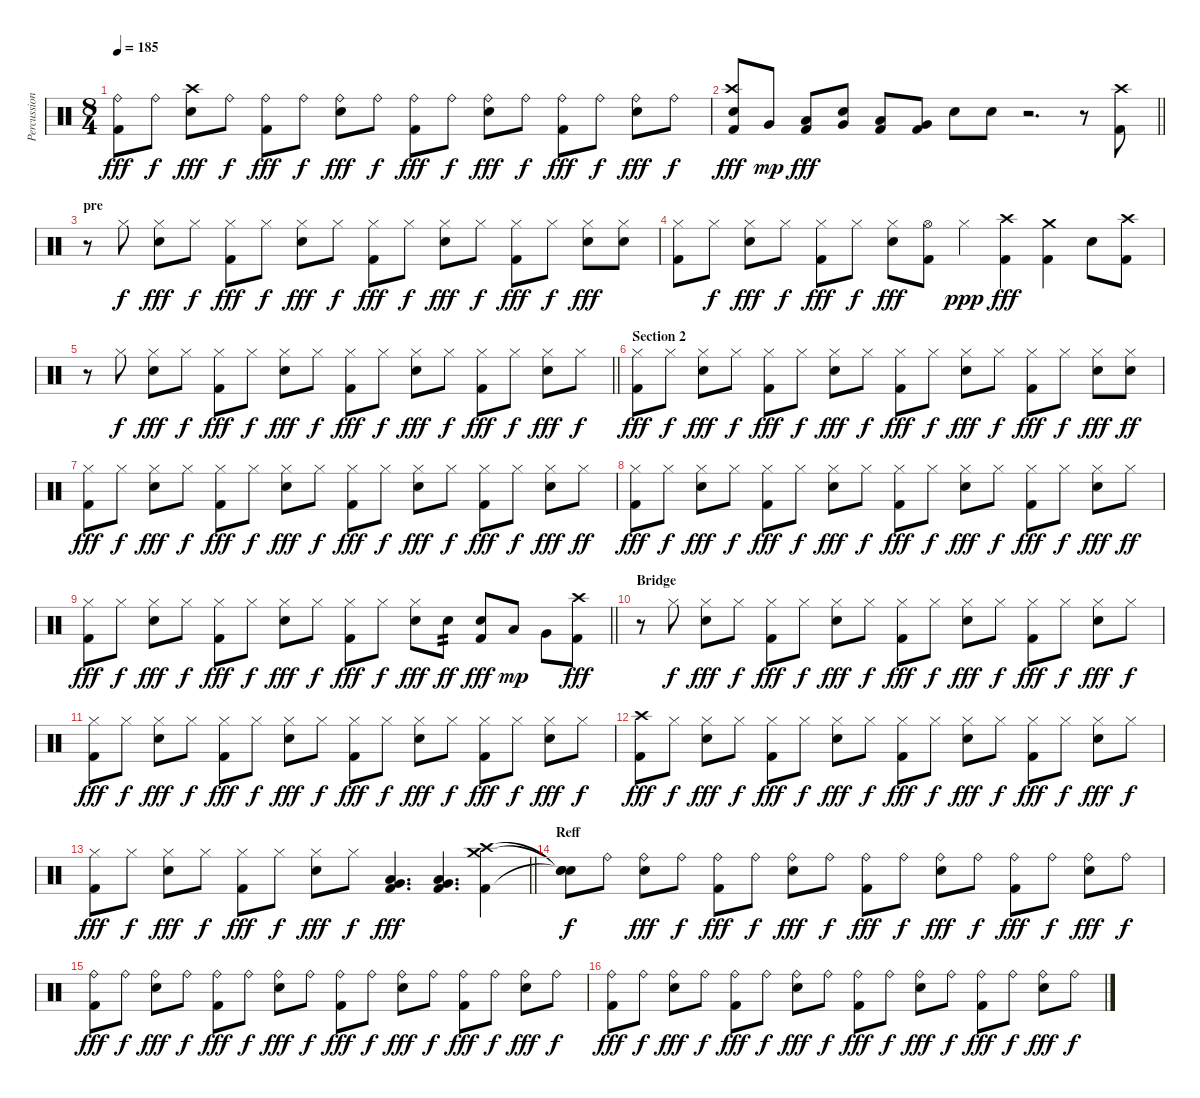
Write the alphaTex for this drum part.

\track ("Percussion" "Percussion") {instrument percussion}
\staff {score}
\articulation defaults
\ts (8 4)
\tempo 185
\clef neutral
\ks c
("Ride (bell)" "Kick (hit) 2").8{dy fff} "Ride (bell)".8{dy f} ("Crash high (hit)" "Electric Snare (hit)").8{dy fff} "Ride (bell)".8{dy f} ("Ride (bell)" "Kick (hit) 2").8{dy fff} "Ride (bell)".8{dy f} ("Ride (bell)" "Electric Snare (hit)").8{dy fff} "Ride (bell)".8{dy f} ("Ride (bell)" "Kick (hit) 2").8{dy fff} "Ride (bell)".8{dy f} ("Ride (bell)" "Electric Snare (hit)").8{dy fff} "Ride (bell)".8{dy f} ("Ride (bell)" "Kick (hit) 2").8{dy fff} "Ride (bell)".8{dy f} ("Ride (bell)" "Electric Snare (hit)").8{dy fff} "Ride (bell)".8{dy f} |
\barLineRight lightlight
("Crash high (hit)" "Electric Snare (hit)" "Kick (hit) 2").8{dy fff} "Very Low Tom (hit)".8{dy mp} ("Low Floor Tom (hit)" "Kick (hit) 2").8{dy fff} ("Very Low Tom (hit)" "Electric Snare (hit)").8 ("Low Floor Tom (hit)" "Kick (hit) 2").8 ("Very Low Tom (hit)" "Kick (hit) 2").8 "Electric Snare (hit)".8 "Electric Snare (hit)".8 r.2{d} r.8 ("Crash high (hit)" "Kick (hit) 2").8 |
\section ("" "pre")
r.8 "Hi-Hat (closed)".8{dy f} ("Hi-Hat (closed)" "Electric Snare (hit)").8{dy fff} "Hi-Hat (closed)".8{dy f} ("Hi-Hat (closed)" "Kick (hit) 2").8{dy fff} "Hi-Hat (closed)".8{dy f} ("Hi-Hat (closed)" "Electric Snare (hit)").8{dy fff} "Hi-Hat (closed)".8{dy f} ("Hi-Hat (closed)" "Kick (hit) 2").8{dy fff} "Hi-Hat (closed)".8{dy f} ("Hi-Hat (closed)" "Electric Snare (hit)").8{dy fff} "Hi-Hat (closed)".8{dy f} ("Hi-Hat (closed)" "Kick (hit) 2").8{dy fff} "Hi-Hat (closed)".8{dy f} ("Hi-Hat (closed)" "Electric Snare (hit)").8{dy fff} ("Hi-Hat (closed)" "Electric Snare (hit)").8 |
("Hi-Hat (closed)" "Kick (hit) 2").8 "Hi-Hat (closed)".8{dy f} ("Hi-Hat (closed)" "Electric Snare (hit)").8{dy fff} "Hi-Hat (closed)".8{dy f} ("Hi-Hat (closed)" "Kick (hit) 2").8{dy fff} "Hi-Hat (closed)".8{dy f} ("Hi-Hat (closed)" "Electric Snare (hit)").8{dy fff} ("Hi-Hat (open)" "Kick (hit) 2").8 "Hi-Hat (closed)".4{dy ppp} ("Crash high (hit)" "Kick (hit) 2").4{dy fff} ("Crash medium (hit)" "Kick (hit) 2").4 "Electric Snare (hit)".8 ("Crash high (hit)" "Kick (hit) 2").8 |
\barLineRight lightlight
r.8 "Hi-Hat (closed)".8{dy f} ("Hi-Hat (closed)" "Electric Snare (hit)").8{dy fff} "Hi-Hat (closed)".8{dy f} ("Hi-Hat (closed)" "Kick (hit) 2").8{dy fff} "Hi-Hat (closed)".8{dy f} ("Hi-Hat (closed)" "Electric Snare (hit)").8{dy fff} "Hi-Hat (closed)".8{dy f} ("Hi-Hat (closed)" "Kick (hit) 2").8{dy fff} "Hi-Hat (closed)".8{dy f} ("Hi-Hat (closed)" "Electric Snare (hit)").8{dy fff} "Hi-Hat (closed)".8{dy f} ("Hi-Hat (closed)" "Kick (hit) 2").8{dy fff} "Hi-Hat (closed)".8{dy f} ("Hi-Hat (closed)" "Electric Snare (hit)").8{dy fff} "Hi-Hat (closed)".8{dy f} |
\section ("" "Section 2")
("Hi-Hat (closed)" "Kick (hit) 2").8{dy fff} "Hi-Hat (closed)".8{dy f} ("Hi-Hat (closed)" "Electric Snare (hit)").8{dy fff} "Hi-Hat (closed)".8{dy f} ("Hi-Hat (closed)" "Kick (hit) 2").8{dy fff} "Hi-Hat (closed)".8{dy f} ("Hi-Hat (closed)" "Electric Snare (hit)").8{dy fff} "Hi-Hat (closed)".8{dy f} ("Hi-Hat (closed)" "Kick (hit) 2").8{dy fff} "Hi-Hat (closed)".8{dy f} ("Hi-Hat (closed)" "Electric Snare (hit)").8{dy fff} "Hi-Hat (closed)".8{dy f} ("Hi-Hat (closed)" "Kick (hit) 2").8{dy fff} "Hi-Hat (closed)".8{dy f} ("Hi-Hat (closed)" "Electric Snare (hit)").8{dy fff} ("Hi-Hat (closed)" "Electric Snare (hit)").8{dy ff} |
("Hi-Hat (closed)" "Kick (hit) 2").8{dy fff} "Hi-Hat (closed)".8{dy f} ("Hi-Hat (closed)" "Electric Snare (hit)").8{dy fff} "Hi-Hat (closed)".8{dy f} ("Hi-Hat (closed)" "Kick (hit) 2").8{dy fff} "Hi-Hat (closed)".8{dy f} ("Hi-Hat (closed)" "Electric Snare (hit)").8{dy fff} "Hi-Hat (closed)".8{dy f} ("Hi-Hat (closed)" "Kick (hit) 2").8{dy fff} "Hi-Hat (closed)".8{dy f} ("Hi-Hat (closed)" "Electric Snare (hit)").8{dy fff} "Hi-Hat (closed)".8{dy f} ("Hi-Hat (closed)" "Kick (hit) 2").8{dy fff} "Hi-Hat (closed)".8{dy f} ("Hi-Hat (closed)" "Electric Snare (hit)").8{dy fff} "Hi-Hat (closed)".8{dy ff} |
("Hi-Hat (closed)" "Kick (hit) 2").8{dy fff} "Hi-Hat (closed)".8{dy f} ("Hi-Hat (closed)" "Electric Snare (hit)").8{dy fff} "Hi-Hat (closed)".8{dy f} ("Hi-Hat (closed)" "Kick (hit) 2").8{dy fff} "Hi-Hat (closed)".8{dy f} ("Hi-Hat (closed)" "Electric Snare (hit)").8{dy fff} "Hi-Hat (closed)".8{dy f} ("Hi-Hat (closed)" "Kick (hit) 2").8{dy fff} "Hi-Hat (closed)".8{dy f} ("Hi-Hat (closed)" "Electric Snare (hit)").8{dy fff} "Hi-Hat (closed)".8{dy f} ("Hi-Hat (closed)" "Kick (hit) 2").8{dy fff} "Hi-Hat (closed)".8{dy f} ("Hi-Hat (closed)" "Electric Snare (hit)").8{dy fff} "Hi-Hat (closed)".8{dy ff} |
\barLineRight lightlight
("Hi-Hat (closed)" "Kick (hit) 2").8{dy fff} "Hi-Hat (closed)".8{dy f} ("Hi-Hat (closed)" "Electric Snare (hit)").8{dy fff} "Hi-Hat (closed)".8{dy f} ("Hi-Hat (closed)" "Kick (hit) 2").8{dy fff} "Hi-Hat (closed)".8{dy f} ("Hi-Hat (closed)" "Electric Snare (hit)").8{dy fff} "Hi-Hat (closed)".8{dy f} ("Hi-Hat (closed)" "Kick (hit) 2").8{dy fff} "Hi-Hat (closed)".8{dy f} ("Hi-Hat (closed)" "Electric Snare (hit)").8{dy fff} "Electric Snare (hit)".8{tp 2 dy ff} ("Electric Snare (hit)" "Kick (hit) 2").8{dy fff} "Low Tom (hit)".8{dy mp} "Very Low Tom (hit)".8 ("Crash high (hit)" "Kick (hit) 2").8{dy fff} |
\section ("" "Bridge")
r.8 "Hi-Hat (closed)".8{dy f} ("Hi-Hat (closed)" "Electric Snare (hit)").8{dy fff} "Hi-Hat (closed)".8{dy f} ("Hi-Hat (closed)" "Kick (hit) 2").8{dy fff} "Hi-Hat (closed)".8{dy f} ("Hi-Hat (closed)" "Electric Snare (hit)").8{dy fff} "Hi-Hat (closed)".8{dy f} ("Hi-Hat (closed)" "Kick (hit) 2").8{dy fff} "Hi-Hat (closed)".8{dy f} ("Hi-Hat (closed)" "Electric Snare (hit)").8{dy fff} "Hi-Hat (closed)".8{dy f} ("Hi-Hat (closed)" "Kick (hit) 2").8{dy fff} "Hi-Hat (closed)".8{dy f} ("Hi-Hat (closed)" "Electric Snare (hit)").8{dy fff} "Hi-Hat (closed)".8{dy f} |
("Hi-Hat (closed)" "Kick (hit) 2").8{dy fff} "Hi-Hat (closed)".8{dy f} ("Hi-Hat (closed)" "Electric Snare (hit)").8{dy fff} "Hi-Hat (closed)".8{dy f} ("Hi-Hat (closed)" "Kick (hit) 2").8{dy fff} "Hi-Hat (closed)".8{dy f} ("Hi-Hat (closed)" "Electric Snare (hit)").8{dy fff} "Hi-Hat (closed)".8{dy f} ("Hi-Hat (closed)" "Kick (hit) 2").8{dy fff} "Hi-Hat (closed)".8{dy f} ("Hi-Hat (closed)" "Electric Snare (hit)").8{dy fff} "Hi-Hat (closed)".8{dy f} ("Hi-Hat (closed)" "Kick (hit) 2").8{dy fff} "Hi-Hat (closed)".8{dy f} ("Hi-Hat (closed)" "Electric Snare (hit)").8{dy fff} "Hi-Hat (closed)".8{dy f} |
("Crash high (hit)" "Kick (hit) 2").8{dy fff} "Hi-Hat (closed)".8{dy f} ("Hi-Hat (closed)" "Electric Snare (hit)").8{dy fff} "Hi-Hat (closed)".8{dy f} ("Hi-Hat (closed)" "Kick (hit) 2").8{dy fff} "Hi-Hat (closed)".8{dy f} ("Hi-Hat (closed)" "Electric Snare (hit)").8{dy fff} "Hi-Hat (closed)".8{dy f} ("Hi-Hat (closed)" "Kick (hit) 2").8{dy fff} "Hi-Hat (closed)".8{dy f} ("Hi-Hat (closed)" "Electric Snare (hit)").8{dy fff} "Hi-Hat (closed)".8{dy f} ("Hi-Hat (closed)" "Kick (hit) 2").8{dy fff} "Hi-Hat (closed)".8{dy f} ("Hi-Hat (closed)" "Electric Snare (hit)").8{dy fff} "Hi-Hat (closed)".8{dy f} |
\barLineRight lightlight
("Hi-Hat (closed)" "Kick (hit) 2").8{dy fff} "Hi-Hat (closed)".8{dy f} ("Hi-Hat (closed)" "Electric Snare (hit)").8{dy fff} "Hi-Hat (closed)".8{dy f} ("Hi-Hat (closed)" "Kick (hit) 2").8{dy fff} "Hi-Hat (closed)".8{dy f} ("Hi-Hat (closed)" "Electric Snare (hit)").8{dy fff} "Hi-Hat (closed)".8{dy f} ("Very Low Tom (hit)" "Low Floor Tom (hit)" "Kick (hit) 2").4{d dy fff} ("Very Low Tom (hit)" "Low Floor Tom (hit)" "Kick (hit) 2").4{d} ("Crash high (hit)" "Crash medium (hit)" "Kick (hit) 2").4 |
\section ("" "Reff")
("Snare (hit)"{t} "Snare (hit)"{t} "Snare (hit)"{t}).8{dy f} "Ride (bell)".8 ("Ride (bell)" "Electric Snare (hit)").8{dy fff} "Ride (bell)".8{dy f} ("Ride (bell)" "Kick (hit) 2").8{dy fff} "Ride (bell)".8{dy f} ("Ride (bell)" "Electric Snare (hit)").8{dy fff} "Ride (bell)".8{dy f} ("Ride (bell)" "Kick (hit) 2").8{dy fff} "Ride (bell)".8{dy f} ("Ride (bell)" "Electric Snare (hit)").8{dy fff} "Ride (bell)".8{dy f} ("Ride (bell)" "Kick (hit) 2").8{dy fff} "Ride (bell)".8{dy f} ("Ride (bell)" "Electric Snare (hit)").8{dy fff} "Ride (bell)".8{dy f} |
("Ride (bell)" "Kick (hit) 2").8{dy fff} "Ride (bell)".8{dy f} ("Ride (bell)" "Electric Snare (hit)").8{dy fff} "Ride (bell)".8{dy f} ("Ride (bell)" "Kick (hit) 2").8{dy fff} "Ride (bell)".8{dy f} ("Ride (bell)" "Electric Snare (hit)").8{dy fff} "Ride (bell)".8{dy f} ("Ride (bell)" "Kick (hit) 2").8{dy fff} "Ride (bell)".8{dy f} ("Ride (bell)" "Electric Snare (hit)").8{dy fff} "Ride (bell)".8{dy f} ("Ride (bell)" "Kick (hit) 2").8{dy fff} "Ride (bell)".8{dy f} ("Ride (bell)" "Electric Snare (hit)").8{dy fff} "Ride (bell)".8{dy f} |
("Ride (bell)" "Kick (hit) 2").8{dy fff} "Ride (bell)".8{dy f} ("Ride (bell)" "Electric Snare (hit)").8{dy fff} "Ride (bell)".8{dy f} ("Ride (bell)" "Kick (hit) 2").8{dy fff} "Ride (bell)".8{dy f} ("Ride (bell)" "Electric Snare (hit)").8{dy fff} "Ride (bell)".8{dy f} ("Ride (bell)" "Kick (hit) 2").8{dy fff} "Ride (bell)".8{dy f} ("Ride (bell)" "Electric Snare (hit)").8{dy fff} "Ride (bell)".8{dy f} ("Ride (bell)" "Kick (hit) 2").8{dy fff} "Ride (bell)".8{dy f} ("Ride (bell)" "Electric Snare (hit)").8{dy fff} "Ride (bell)".8{dy f}
